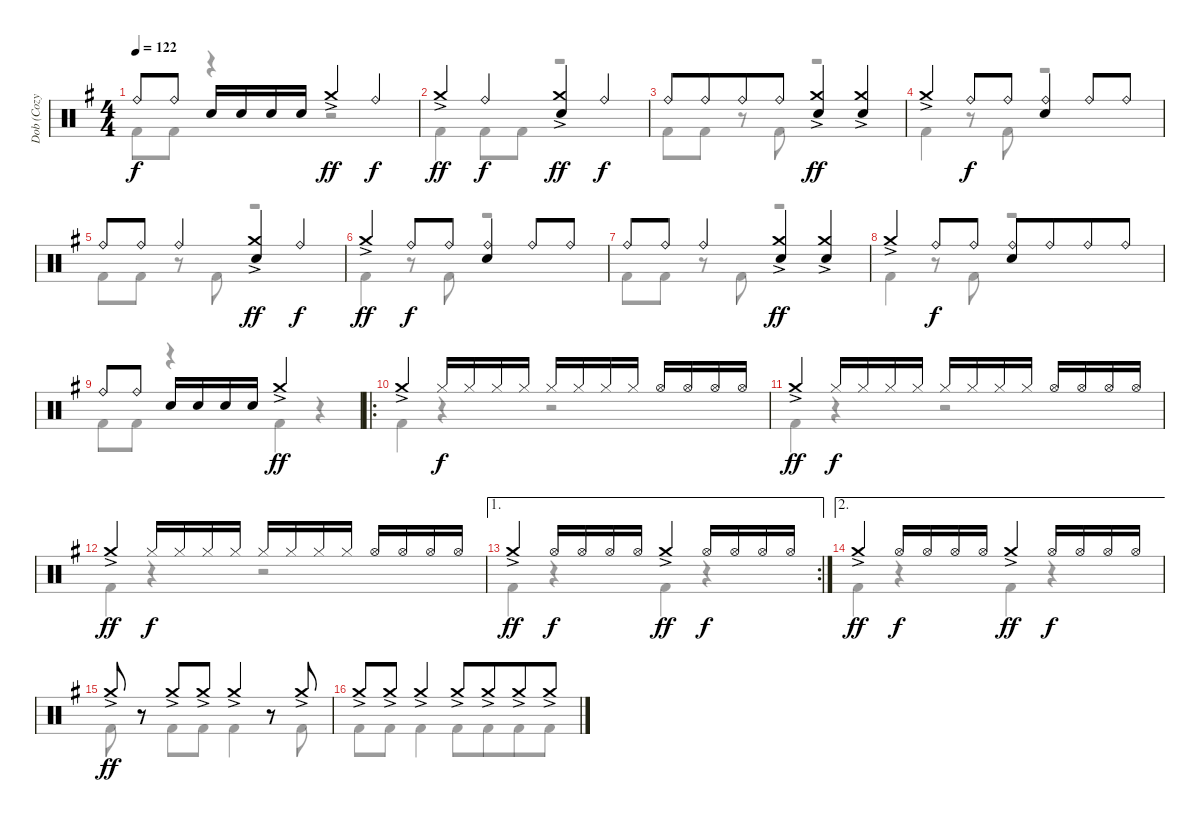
\track ("Dob (Cozy Powell)" "Dob (Cozy ") {instrument percussion}
\staff {score}
\articulation defaults
\voice
\ts (4 4)
\tempo 122
\clef neutral
\ks g "Ride (bell)".8{dy f} "Ride (bell)".8 "Electric Snare (hit)".16 "Electric Snare (hit)".16 "Electric Snare (hit)".16 "Electric Snare (hit)".16 "Crash medium (hit)"{ac}.4{dy ff} "Ride (bell)".4{dy f}
|
"Crash medium (hit)"{ac}.4{dy ff} "Ride (bell)".4{dy f} ("Crash medium (hit)"{ac} "Electric Snare (hit)").4{dy ff} "Ride (bell)".4{dy f} |
"Ride (bell)".8 "Ride (bell)".8{beam merge} "Ride (bell)".8 "Ride (bell)".8 ("Crash medium (hit)"{ac} "Electric Snare (hit)").4{dy ff} ("Crash medium (hit)"{ac} "Electric Snare (hit)").4 |
"Crash medium (hit)"{ac}.4 "Ride (bell)".8{dy f} "Ride (bell)".8 ("Ride (bell)" "Electric Snare (hit)").4 "Ride (bell)".8 "Ride (bell)".8 |
"Ride (bell)".8 "Ride (bell)".8 "Ride (bell)".4 ("Crash medium (hit)" "Electric Snare (hit)"{ac}).4{dy ff} "Ride (bell)".4{dy f} |
"Crash medium (hit)"{ac}.4{dy ff} "Ride (bell)".8{dy f} "Ride (bell)".8 ("Ride (bell)" "Electric Snare (hit)").4 "Ride (bell)".8 "Ride (bell)".8 |
"Ride (bell)".8 "Ride (bell)".8 "Ride (bell)".4 ("Crash medium (hit)" "Electric Snare (hit)"{ac}).4{dy ff} ("Crash medium (hit)"{ac} "Electric Snare (hit)").4 |
"Crash medium (hit)"{ac}.4 "Ride (bell)".8{dy f} "Ride (bell)".8 ("Ride (bell)" "Electric Snare (hit)").8 "Ride (bell)".8{beam merge} "Ride (bell)".8 "Ride (bell)".8 |
"Ride (bell)".8 "Ride (bell)".8 "Electric Snare (hit)".16 "Electric Snare (hit)".16 "Electric Snare (hit)".16 "Electric Snare (hit)".16 "Crash medium (hit)"{ac}.2{dy ff} |
\ro "Crash medium (hit)"{ac}.4 "Hi-Hat (closed)".16{dy f} "Hi-Hat (closed)".16 "Hi-Hat (closed)".16 "Hi-Hat (closed)".16 "Hi-Hat (closed)".16 "Hi-Hat (closed)".16 "Hi-Hat (closed)".16 "Hi-Hat (closed)".16 "Hi-Hat (open)".16 "Hi-Hat (open)".16 "Hi-Hat (open)".16 "Hi-Hat (open)".16
|
"Crash medium (hit)"{ac}.4{dy ff} "Hi-Hat (closed)".16{dy f} "Hi-Hat (closed)".16 "Hi-Hat (closed)".16 "Hi-Hat (closed)".16 "Hi-Hat (closed)".16 "Hi-Hat (closed)".16 "Hi-Hat (closed)".16 "Hi-Hat (closed)".16 "Hi-Hat (open)".16 "Hi-Hat (open)".16 "Hi-Hat (open)".16 "Hi-Hat (open)".16 |
"Crash medium (hit)"{ac}.4{dy ff} "Hi-Hat (closed)".16{dy f} "Hi-Hat (closed)".16 "Hi-Hat (closed)".16 "Hi-Hat (closed)".16 "Hi-Hat (closed)".16 "Hi-Hat (closed)".16 "Hi-Hat (closed)".16 "Hi-Hat (closed)".16 "Hi-Hat (open)".16 "Hi-Hat (open)".16 "Hi-Hat (open)".16 "Hi-Hat (open)".16 |
\ae 1
\rc 2 "Crash medium (hit)"{ac}.4{dy ff} "Hi-Hat (open)".16{dy f} "Hi-Hat (open)".16 "Hi-Hat (open)".16 "Hi-Hat (open)".16 "Crash medium (hit)"{ac}.4{dy ff} "Hi-Hat (open)".16{dy f} "Hi-Hat (open)".16 "Hi-Hat (open)".16 "Hi-Hat (open)".16
|
\ae 2 "Crash medium (hit)"{ac}.4{dy ff} "Hi-Hat (open)".16{dy f} "Hi-Hat (open)".16 "Hi-Hat (open)".16 "Hi-Hat (open)".16 "Crash medium (hit)"{ac}.4{dy ff} "Hi-Hat (open)".16{dy f} "Hi-Hat (open)".16 "Hi-Hat (open)".16 "Hi-Hat (open)".16
|
"Crash medium (hit)"{ac}.8{dy ff} r.8 "Crash medium (hit)"{ac}.8 "Crash medium (hit)"{ac}.8 "Crash medium (hit)"{ac}.4 r.8 "Crash medium (hit)"{ac}.8 |
"Crash medium (hit)"{ac}.8 "Crash medium (hit)"{ac}.8 "Crash medium (hit)"{ac}.4 "Crash medium (hit)"{ac}.8 "Crash medium (hit)"{ac}.8{beam merge} "Crash medium (hit)"{ac}.8 "Crash medium (hit)"{ac}.8
\voice
\clef neutral
\ottava regular
\simile none
\ks g "Kick (hit) 2".8{dy f} "Kick (hit) 2".8
r.4 r.2 |
"Kick (hit) 2".4 "Kick (hit) 2".8 "Kick (hit) 2".8 r.2 |
"Kick (hit) 2".8 "Kick (hit) 2".8 r.8 "Kick (hit) 2".8 r.2 |
"Kick (hit) 2".4 r.8 "Kick (hit) 2".8 r.2 |
"Kick (hit) 2".8 "Kick (hit) 2".8 r.8 "Kick (hit) 2".8 r.2 |
"Kick (hit) 2".4 r.8 "Kick (hit) 2".8 r.2 |
"Kick (hit) 2".8 "Kick (hit) 2".8 r.8 "Kick (hit) 2".8 r.2 |
"Kick (hit) 2".4 r.8 "Kick (hit) 2".8 r.2 |
"Kick (hit) 2".8 "Kick (hit) 2".8 r.4 "Kick (hit) 2".4 r.4 |
"Kick (hit) 2".4 r.4 r.2 |
"Kick (hit) 2".4 r.4 r.2 |
"Kick (hit) 2".4 r.4 r.2 |
"Kick (hit) 2".4 r.4 "Kick (hit) 2".4 r.4 |
"Kick (hit) 2".4 r.4 "Kick (hit) 2".4 r.4 |
"Kick (hit) 2".8 r.8 "Kick (hit) 2".8 "Kick (hit) 2".8 "Kick (hit) 2".4 r.8 "Kick (hit) 2".8 |
"Kick (hit) 2".8 "Kick (hit) 2".8 "Kick (hit) 2".4 "Kick (hit) 2".8 "Kick (hit) 2".8{beam merge} "Kick (hit) 2".8 "Kick (hit) 2".8
